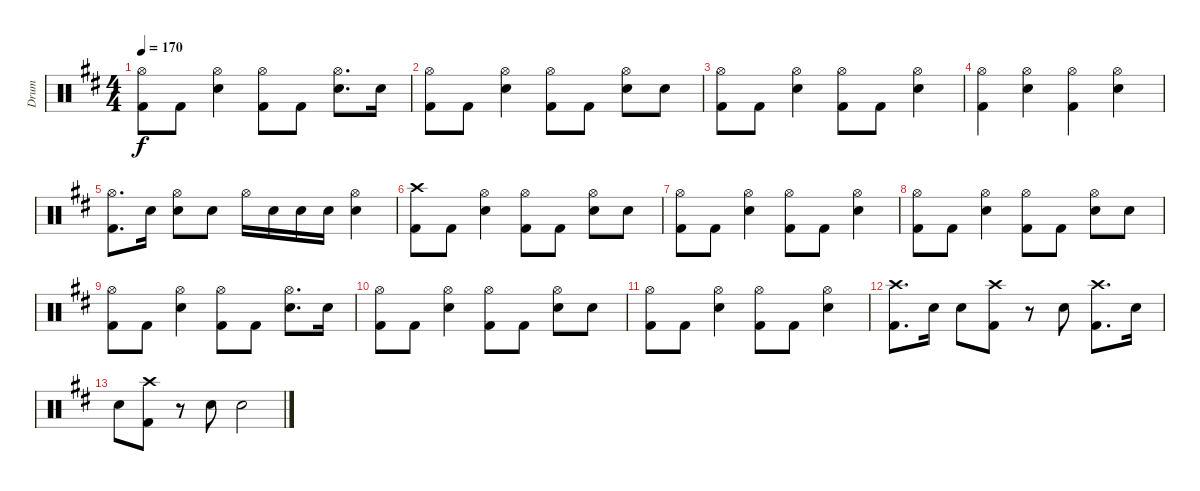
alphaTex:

\track ("Drum" "Drum") {instrument percussion}
\staff {score}
\articulation defaults
\ts (4 4)
\tempo 170
\clef neutral
\ks d
("Hi-Hat (open)" "Kick (hit) 2").8{dy f} "Kick (hit) 2".8 ("Hi-Hat (open)" "Electric Snare (hit)").4 ("Hi-Hat (open)" "Kick (hit) 2").8 "Kick (hit) 2".8 ("Hi-Hat (open)" "Electric Snare (hit)").8{d} "Electric Snare (hit)".16 |
("Hi-Hat (open)" "Kick (hit) 2").8 "Kick (hit) 2".8 ("Hi-Hat (open)" "Electric Snare (hit)").4 ("Hi-Hat (open)" "Kick (hit) 2").8 "Kick (hit) 2".8 ("Hi-Hat (open)" "Electric Snare (hit)").8 "Electric Snare (hit)".8 |
("Hi-Hat (open)" "Kick (hit) 2").8 "Kick (hit) 2".8 ("Hi-Hat (open)" "Electric Snare (hit)").4 ("Hi-Hat (open)" "Kick (hit) 2").8 "Kick (hit) 2".8 ("Hi-Hat (open)" "Electric Snare (hit)").4 |
("Hi-Hat (open)" "Kick (hit) 2").4 ("Hi-Hat (open)" "Electric Snare (hit)").4 ("Hi-Hat (open)" "Kick (hit) 2").4 ("Hi-Hat (open)" "Electric Snare (hit)").4 |
("Hi-Hat (open)" "Kick (hit) 2").8{d} "Electric Snare (hit)".16 ("Hi-Hat (open)" "Electric Snare (hit)").8 "Electric Snare (hit)".8 "Hi-Hat (open)".16 "Electric Snare (hit)".16 "Electric Snare (hit)".16 "Electric Snare (hit)".16 ("Hi-Hat (open)" "Electric Snare (hit)").4 |
("Crash high (hit)" "Kick (hit) 2").8 "Kick (hit) 2".8 ("Hi-Hat (open)" "Electric Snare (hit)").4 ("Hi-Hat (open)" "Kick (hit) 2").8 "Kick (hit) 2".8 ("Hi-Hat (open)" "Electric Snare (hit)").8 "Electric Snare (hit)".8 |
("Hi-Hat (open)" "Kick (hit) 2").8 "Kick (hit) 2".8 ("Hi-Hat (open)" "Electric Snare (hit)").4 ("Hi-Hat (open)" "Kick (hit) 2").8 "Kick (hit) 2".8 ("Hi-Hat (open)" "Electric Snare (hit)").4 |
("Hi-Hat (open)" "Kick (hit) 2").8 "Kick (hit) 2".8 ("Hi-Hat (open)" "Electric Snare (hit)").4 ("Hi-Hat (open)" "Kick (hit) 2").8 "Kick (hit) 2".8 ("Hi-Hat (open)" "Electric Snare (hit)").8 "Electric Snare (hit)".8 |
("Hi-Hat (open)" "Kick (hit) 2").8 "Kick (hit) 2".8 ("Hi-Hat (open)" "Electric Snare (hit)").4 ("Hi-Hat (open)" "Kick (hit) 2").8 "Kick (hit) 2".8 ("Hi-Hat (open)" "Electric Snare (hit)").8{d} "Electric Snare (hit)".16 |
("Hi-Hat (open)" "Kick (hit) 2").8 "Kick (hit) 2".8 ("Hi-Hat (open)" "Electric Snare (hit)").4 ("Hi-Hat (open)" "Kick (hit) 2").8 "Kick (hit) 2".8 ("Hi-Hat (open)" "Electric Snare (hit)").8 "Electric Snare (hit)".8 |
("Hi-Hat (open)" "Kick (hit) 2").8 "Kick (hit) 2".8 ("Hi-Hat (open)" "Electric Snare (hit)").4 ("Hi-Hat (open)" "Kick (hit) 2").8 "Kick (hit) 2".8 ("Hi-Hat (open)" "Electric Snare (hit)").4 |
("Crash high (hit)" "Kick (hit) 2").8{d} "Electric Snare (hit)".16 "Electric Snare (hit)".8 ("Crash high (hit)" "Kick (hit) 2").8 r.8 "Electric Snare (hit)".8 ("Crash high (hit)" "Kick (hit) 2").8{d} "Electric Snare (hit)".16 |
"Electric Snare (hit)".8 ("Crash high (hit)" "Kick (hit) 2").8 r.8 "Electric Snare (hit)".8 "Electric Snare (hit)".2
